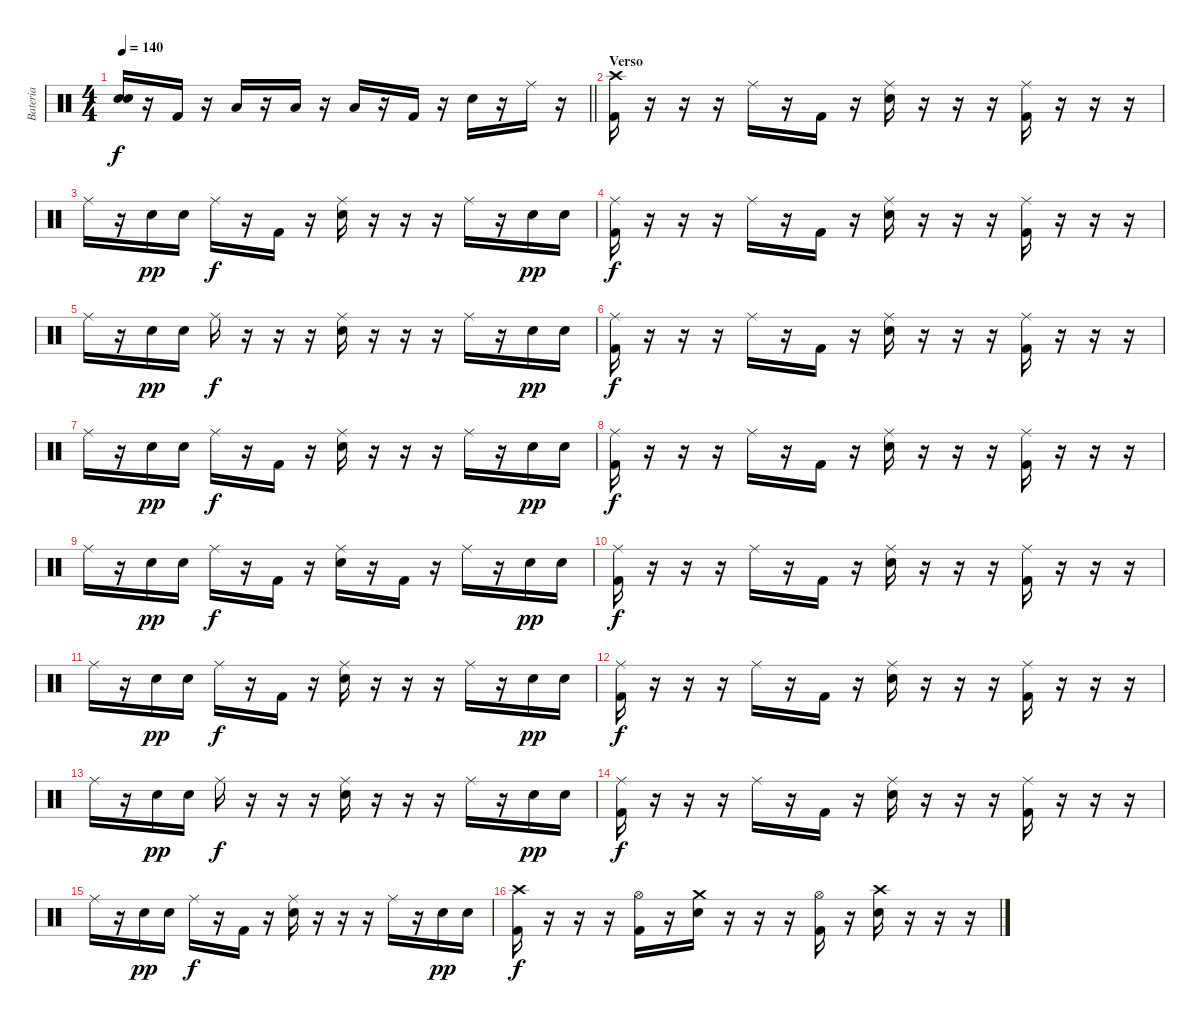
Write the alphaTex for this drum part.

\track ("Bateria" "Bateria") {instrument percussion}
\staff {score}
\articulation defaults
\ts (4 4)
\tempo 140
\clef neutral
\barLineRight lightlight
\ks c
("Snare (hit) 2" "Electric Snare (hit)").16{dy f} r.16 "Kick (hit) 2".16 r.16 "Low Floor Tom (hit)".16 r.16 "Low Tom (hit)".16 r.16 "Low Floor Tom (hit)".16 r.16 "Kick (hit) 2".16 r.16 "Snare (hit) 2".16 r.16 "Ride (middle)".16 r.16 |
\section ("" "Verso")
("Crash high (hit)" "Kick (hit) 2").16 r.16 r.16 r.16 "Ride (middle)".16 r.16 "Kick (hit) 2".16 r.16 ("Ride (middle)" "Snare (hit) 2").16 r.16 r.16 r.16 ("Ride (middle)" "Kick (hit) 2").16 r.16 r.16 r.16 |
"Ride (middle)".16 r.16 "Electric Snare (hit)".16{dy pp} "Electric Snare (hit)".16 "Ride (middle)".16{dy f} r.16 "Kick (hit) 2".16 r.16 ("Ride (middle)" "Snare (hit) 2").16 r.16 r.16 r.16 "Ride (middle)".16 r.16 "Electric Snare (hit)".16{dy pp} "Electric Snare (hit)".16 |
("Ride (middle)" "Kick (hit) 2").16{dy f} r.16 r.16 r.16 "Ride (middle)".16 r.16 "Kick (hit) 2".16 r.16 ("Ride (middle)" "Snare (hit) 2").16 r.16 r.16 r.16 ("Ride (middle)" "Kick (hit) 2").16 r.16 r.16 r.16 |
"Ride (middle)".16 r.16 "Electric Snare (hit)".16{dy pp} "Electric Snare (hit)".16 "Ride (middle)".16{dy f} r.16 r.16 r.16 ("Ride (middle)" "Snare (hit) 2").16 r.16 r.16 r.16 "Ride (middle)".16 r.16 "Electric Snare (hit)".16{dy pp} "Electric Snare (hit)".16 |
("Ride (middle)" "Kick (hit) 2").16{dy f} r.16 r.16 r.16 "Ride (middle)".16 r.16 "Kick (hit) 2".16 r.16 ("Ride (middle)" "Snare (hit) 2").16 r.16 r.16 r.16 ("Ride (middle)" "Kick (hit) 2").16 r.16 r.16 r.16 |
"Ride (middle)".16 r.16 "Electric Snare (hit)".16{dy pp} "Electric Snare (hit)".16 "Ride (middle)".16{dy f} r.16 "Kick (hit) 2".16 r.16 ("Ride (middle)" "Snare (hit) 2").16 r.16 r.16 r.16 "Ride (middle)".16 r.16 "Electric Snare (hit)".16{dy pp} "Electric Snare (hit)".16 |
("Ride (middle)" "Kick (hit) 2").16{dy f} r.16 r.16 r.16 "Ride (middle)".16 r.16 "Kick (hit) 2".16 r.16 ("Ride (middle)" "Snare (hit) 2").16 r.16 r.16 r.16 ("Ride (middle)" "Kick (hit) 2").16 r.16 r.16 r.16 |
"Ride (middle)".16 r.16 "Electric Snare (hit)".16{dy pp} "Electric Snare (hit)".16 "Ride (middle)".16{dy f} r.16 "Kick (hit) 2".16 r.16 ("Ride (middle)" "Snare (hit) 2").16 r.16 "Kick (hit) 2".16 r.16 "Ride (middle)".16 r.16 "Electric Snare (hit)".16{dy pp} "Electric Snare (hit)".16 |
("Ride (middle)" "Kick (hit) 2").16{dy f} r.16 r.16 r.16 "Ride (middle)".16 r.16 "Kick (hit) 2".16 r.16 ("Ride (middle)" "Snare (hit) 2").16 r.16 r.16 r.16 ("Ride (middle)" "Kick (hit) 2").16 r.16 r.16 r.16 |
"Ride (middle)".16 r.16 "Electric Snare (hit)".16{dy pp} "Electric Snare (hit)".16 "Ride (middle)".16{dy f} r.16 "Kick (hit) 2".16 r.16 ("Ride (middle)" "Snare (hit) 2").16 r.16 r.16 r.16 "Ride (middle)".16 r.16 "Electric Snare (hit)".16{dy pp} "Electric Snare (hit)".16 |
("Ride (middle)" "Kick (hit) 2").16{dy f} r.16 r.16 r.16 "Ride (middle)".16 r.16 "Kick (hit) 2".16 r.16 ("Ride (middle)" "Snare (hit) 2").16 r.16 r.16 r.16 ("Ride (middle)" "Kick (hit) 2").16 r.16 r.16 r.16 |
"Ride (middle)".16 r.16 "Electric Snare (hit)".16{dy pp} "Electric Snare (hit)".16 "Ride (middle)".16{dy f} r.16 r.16 r.16 ("Ride (middle)" "Snare (hit) 2").16 r.16 r.16 r.16 "Ride (middle)".16 r.16 "Electric Snare (hit)".16{dy pp} "Electric Snare (hit)".16 |
("Ride (middle)" "Kick (hit) 2").16{dy f} r.16 r.16 r.16 "Ride (middle)".16 r.16 "Kick (hit) 2".16 r.16 ("Ride (middle)" "Snare (hit) 2").16 r.16 r.16 r.16 ("Ride (middle)" "Kick (hit) 2").16 r.16 r.16 r.16 |
"Ride (middle)".16 r.16 "Electric Snare (hit)".16{dy pp} "Electric Snare (hit)".16 "Ride (middle)".16{dy f} r.16 "Kick (hit) 2".16 r.16 ("Ride (middle)" "Snare (hit) 2").16 r.16 r.16 r.16 "Ride (middle)".16 r.16 "Electric Snare (hit)".16{dy pp} "Electric Snare (hit)".16 |
("Crash high (hit)" "Kick (hit) 2").16{dy f} r.16 r.16 r.16 ("Hi-Hat (open)" "Kick (hit) 2").16 r.16 ("Crash medium (hit)" "Snare (hit) 2").16 r.16 r.16 r.16 ("Hi-Hat (open)" "Kick (hit) 2").16 r.16 ("Crash high (hit)" "Snare (hit) 2").16 r.16 r.16 r.16
